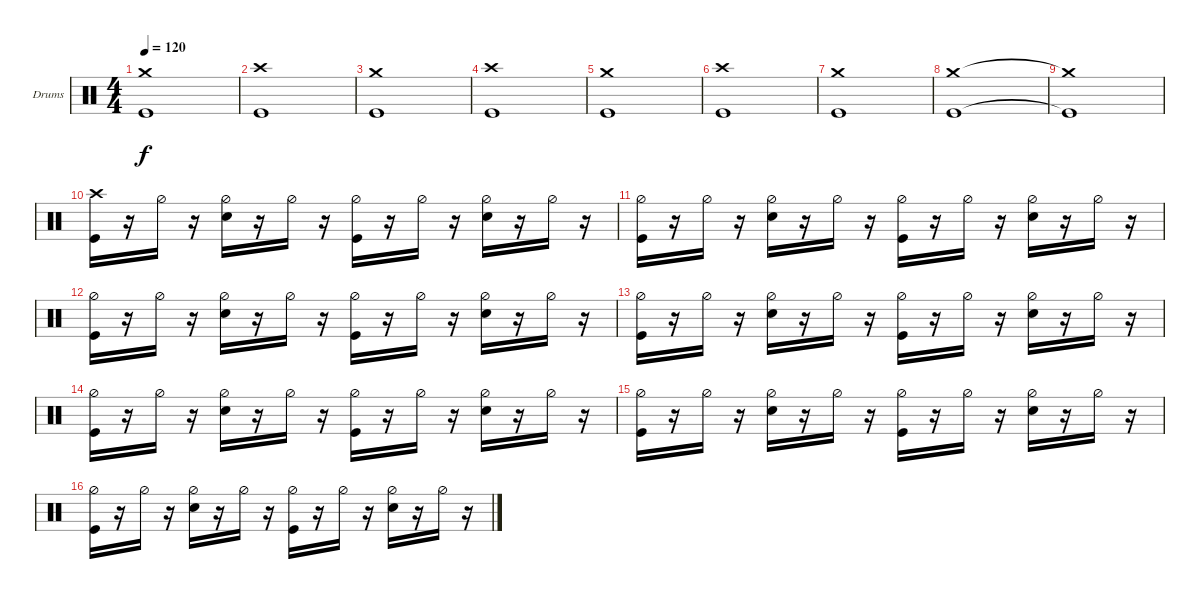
\defaultSystemsLayout 4
\bracketExtendMode groupsimilarinstruments
\firstSystemTrackNameOrientation horizontal
\otherSystemsTrackNameOrientation horizontal
\track ("Drums  SK" "Drums") {instrument percussion}
\staff {score}
\articulation defaults
\ts (4 4)
\tempo 120
\clef neutral
\ks c
("Kick (hit)" "Crash medium (hit)").1{dy f} |
("Kick (hit)" "Crash high (hit)").1 |
("Kick (hit)" "Crash medium (hit)").1 |
("Kick (hit)" "Crash high (hit)").1 |
("Kick (hit)" "Crash medium (hit)").1 |
("Kick (hit)" "Crash high (hit)").1 |
("Kick (hit)" "Crash medium (hit)").1 |
("Kick (hit)" "Crash medium (hit)").1 |
("Kick (hit)"{t} "Crash medium (hit)"{t}).1 |
("Kick (hit)" "Crash high (hit)").16 r.16 "Hi-Hat (half)".16 r.16 ("Snare (hit) 2" "Hi-Hat (half)").16 r.16 "Hi-Hat (half)".16 r.16 ("Kick (hit)" "Hi-Hat (half)").16 r.16 "Hi-Hat (half)".16 r.16 ("Snare (hit) 2" "Hi-Hat (half)").16 r.16 "Hi-Hat (half)".16 r.16 |
("Kick (hit)" "Hi-Hat (half)").16 r.16 "Hi-Hat (half)".16 r.16 ("Snare (hit) 2" "Hi-Hat (half)").16 r.16 "Hi-Hat (half)".16 r.16 ("Kick (hit)" "Hi-Hat (half)").16 r.16 "Hi-Hat (half)".16 r.16 ("Snare (hit) 2" "Hi-Hat (half)").16 r.16 "Hi-Hat (half)".16 r.16 |
("Kick (hit)" "Hi-Hat (half)").16 r.16 "Hi-Hat (half)".16 r.16 ("Snare (hit) 2" "Hi-Hat (half)").16 r.16 "Hi-Hat (half)".16 r.16 ("Kick (hit)" "Hi-Hat (half)").16 r.16 "Hi-Hat (half)".16 r.16 ("Snare (hit) 2" "Hi-Hat (half)").16 r.16 "Hi-Hat (half)".16 r.16 |
("Kick (hit)" "Hi-Hat (half)").16 r.16 "Hi-Hat (half)".16 r.16 ("Snare (hit) 2" "Hi-Hat (half)").16 r.16 "Hi-Hat (half)".16 r.16 ("Kick (hit)" "Hi-Hat (half)").16 r.16 "Hi-Hat (half)".16 r.16 ("Snare (hit) 2" "Hi-Hat (half)").16 r.16 "Hi-Hat (half)".16 r.16 |
("Kick (hit)" "Hi-Hat (half)").16 r.16 "Hi-Hat (half)".16 r.16 ("Snare (hit) 2" "Hi-Hat (half)").16 r.16 "Hi-Hat (half)".16 r.16 ("Kick (hit)" "Hi-Hat (half)").16 r.16 "Hi-Hat (half)".16 r.16 ("Snare (hit) 2" "Hi-Hat (half)").16 r.16 "Hi-Hat (half)".16 r.16 |
("Kick (hit)" "Hi-Hat (half)").16 r.16 "Hi-Hat (half)".16 r.16 ("Snare (hit) 2" "Hi-Hat (half)").16 r.16 "Hi-Hat (half)".16 r.16 ("Kick (hit)" "Hi-Hat (half)").16 r.16 "Hi-Hat (half)".16 r.16 ("Snare (hit) 2" "Hi-Hat (half)").16 r.16 "Hi-Hat (half)".16 r.16 |
("Kick (hit)" "Hi-Hat (half)").16 r.16 "Hi-Hat (half)".16 r.16 ("Snare (hit) 2" "Hi-Hat (half)").16 r.16 "Hi-Hat (half)".16 r.16 ("Kick (hit)" "Hi-Hat (half)").16 r.16 "Hi-Hat (half)".16 r.16 ("Snare (hit) 2" "Hi-Hat (half)").16 r.16 "Hi-Hat (half)".16 r.16
